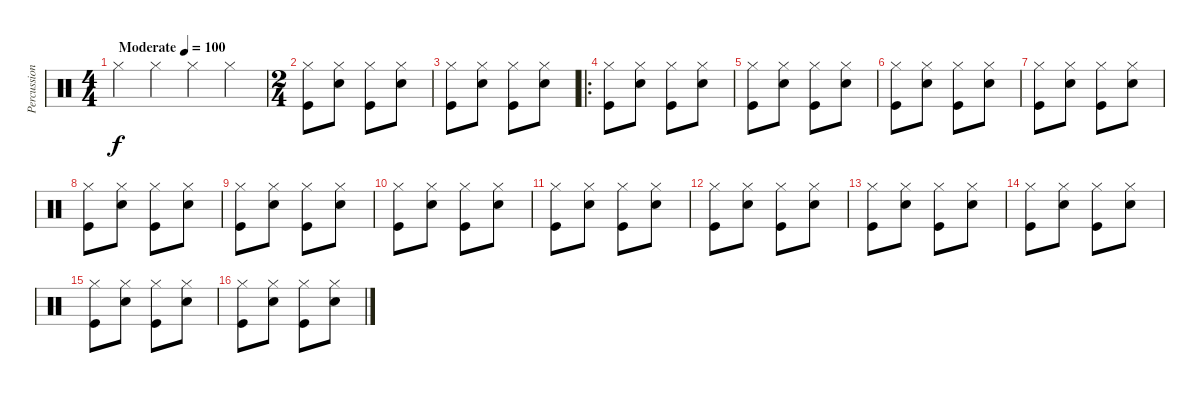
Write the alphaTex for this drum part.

\track ("Percussion" "Percussion") {instrument percussion}
\staff {score}
\articulation defaults
\ts (4 4)
\tempo (100 "Moderate")
\clef neutral
\ks c "Hi-Hat (closed)".4{dy f} "Hi-Hat (closed)".4 "Hi-Hat (closed)".4 "Hi-Hat (closed)".4
|
\ts (2 4)
("Hi-Hat (closed)" "Kick (hit)").8 ("Hi-Hat (closed)" "Snare (hit) 2").8 ("Hi-Hat (closed)" "Kick (hit)").8 ("Hi-Hat (closed)" "Snare (hit) 2").8 |
("Hi-Hat (closed)" "Kick (hit)").8 ("Hi-Hat (closed)" "Snare (hit) 2").8 ("Hi-Hat (closed)" "Kick (hit)").8 ("Hi-Hat (closed)" "Snare (hit) 2").8 |
\ro
("Hi-Hat (closed)" "Kick (hit)").8 ("Hi-Hat (closed)" "Snare (hit) 2").8 ("Hi-Hat (closed)" "Kick (hit)").8 ("Hi-Hat (closed)" "Snare (hit) 2").8 |
("Hi-Hat (closed)" "Kick (hit)").8 ("Hi-Hat (closed)" "Snare (hit) 2").8 ("Hi-Hat (closed)" "Kick (hit)").8 ("Hi-Hat (closed)" "Snare (hit) 2").8 |
("Hi-Hat (closed)" "Kick (hit)").8 ("Hi-Hat (closed)" "Snare (hit) 2").8 ("Hi-Hat (closed)" "Kick (hit)").8 ("Hi-Hat (closed)" "Snare (hit) 2").8 |
("Hi-Hat (closed)" "Kick (hit)").8 ("Hi-Hat (closed)" "Snare (hit) 2").8 ("Hi-Hat (closed)" "Kick (hit)").8 ("Hi-Hat (closed)" "Snare (hit) 2").8 |
("Hi-Hat (closed)" "Kick (hit)").8 ("Hi-Hat (closed)" "Snare (hit) 2").8 ("Hi-Hat (closed)" "Kick (hit)").8 ("Hi-Hat (closed)" "Snare (hit) 2").8 |
("Hi-Hat (closed)" "Kick (hit)").8 ("Hi-Hat (closed)" "Snare (hit) 2").8 ("Hi-Hat (closed)" "Kick (hit)").8 ("Hi-Hat (closed)" "Snare (hit) 2").8 |
("Hi-Hat (closed)" "Kick (hit)").8 ("Hi-Hat (closed)" "Snare (hit) 2").8 ("Hi-Hat (closed)" "Kick (hit)").8 ("Hi-Hat (closed)" "Snare (hit) 2").8 |
("Hi-Hat (closed)" "Kick (hit)").8 ("Hi-Hat (closed)" "Snare (hit) 2").8 ("Hi-Hat (closed)" "Kick (hit)").8 ("Hi-Hat (closed)" "Snare (hit) 2").8 |
("Hi-Hat (closed)" "Kick (hit)").8 ("Hi-Hat (closed)" "Snare (hit) 2").8 ("Hi-Hat (closed)" "Kick (hit)").8 ("Hi-Hat (closed)" "Snare (hit) 2").8 |
("Hi-Hat (closed)" "Kick (hit)").8 ("Hi-Hat (closed)" "Snare (hit) 2").8 ("Hi-Hat (closed)" "Kick (hit)").8 ("Hi-Hat (closed)" "Snare (hit) 2").8 |
("Hi-Hat (closed)" "Kick (hit)").8 ("Hi-Hat (closed)" "Snare (hit) 2").8 ("Hi-Hat (closed)" "Kick (hit)").8 ("Hi-Hat (closed)" "Snare (hit) 2").8 |
("Hi-Hat (closed)" "Kick (hit)").8 ("Hi-Hat (closed)" "Snare (hit) 2").8 ("Hi-Hat (closed)" "Kick (hit)").8 ("Hi-Hat (closed)" "Snare (hit) 2").8 |
("Hi-Hat (closed)" "Kick (hit)").8 ("Hi-Hat (closed)" "Snare (hit) 2").8 ("Hi-Hat (closed)" "Kick (hit)").8 ("Hi-Hat (closed)" "Snare (hit) 2").8
